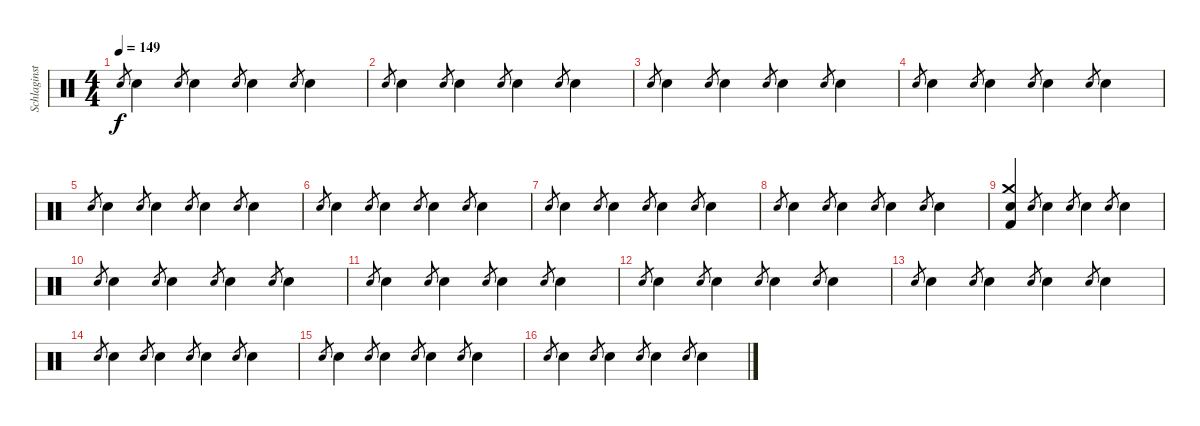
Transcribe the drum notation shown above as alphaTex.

\track ("Schlaginstrumente - Auswahl" "Schlaginst") {instrument percussion}
\staff {score}
\articulation defaults
\ts (4 4)
\tempo 149
\clef neutral
\ks c "Electric Snare (hit)".8{gr dy f} "Electric Snare (hit)".4 "Electric Snare (hit)".8{gr} "Electric Snare (hit)".4 "Electric Snare (hit)".8{gr} "Electric Snare (hit)".4 "Electric Snare (hit)".8{gr} "Electric Snare (hit)".4
|
"Electric Snare (hit)".8{gr} "Electric Snare (hit)".4 "Electric Snare (hit)".8{gr} "Electric Snare (hit)".4 "Electric Snare (hit)".8{gr} "Electric Snare (hit)".4 "Electric Snare (hit)".8{gr} "Electric Snare (hit)".4 |
"Electric Snare (hit)".8{gr} "Electric Snare (hit)".4 "Electric Snare (hit)".8{gr} "Electric Snare (hit)".4 "Electric Snare (hit)".8{gr} "Electric Snare (hit)".4 "Electric Snare (hit)".8{gr} "Electric Snare (hit)".4 |
"Electric Snare (hit)".8{gr} "Electric Snare (hit)".4 "Electric Snare (hit)".8{gr} "Electric Snare (hit)".4 "Electric Snare (hit)".8{gr} "Electric Snare (hit)".4 "Electric Snare (hit)".8{gr} "Electric Snare (hit)".4 |
"Electric Snare (hit)".8{gr} "Electric Snare (hit)".4 "Electric Snare (hit)".8{gr} "Electric Snare (hit)".4 "Electric Snare (hit)".8{gr} "Electric Snare (hit)".4 "Electric Snare (hit)".8{gr} "Electric Snare (hit)".4 |
"Electric Snare (hit)".8{gr} "Electric Snare (hit)".4 "Electric Snare (hit)".8{gr} "Electric Snare (hit)".4 "Electric Snare (hit)".8{gr} "Electric Snare (hit)".4 "Electric Snare (hit)".8{gr} "Electric Snare (hit)".4 |
"Electric Snare (hit)".8{gr} "Electric Snare (hit)".4 "Electric Snare (hit)".8{gr} "Electric Snare (hit)".4 "Electric Snare (hit)".8{gr} "Electric Snare (hit)".4 "Electric Snare (hit)".8{gr} "Electric Snare (hit)".4 |
"Electric Snare (hit)".8{gr} "Electric Snare (hit)".4 "Electric Snare (hit)".8{gr} "Electric Snare (hit)".4 "Electric Snare (hit)".8{gr} "Electric Snare (hit)".4 "Electric Snare (hit)".8{gr} "Electric Snare (hit)".4 |
("Crash medium (hit)" "Electric Snare (hit)" "Kick (hit) 2").4 "Electric Snare (hit)".8{gr} "Electric Snare (hit)".4 "Electric Snare (hit)".8{gr} "Electric Snare (hit)".4 "Electric Snare (hit)".8{gr} "Electric Snare (hit)".4 |
"Electric Snare (hit)".8{gr} "Electric Snare (hit)".4 "Electric Snare (hit)".8{gr} "Electric Snare (hit)".4 "Electric Snare (hit)".8{gr} "Electric Snare (hit)".4 "Electric Snare (hit)".8{gr} "Electric Snare (hit)".4 |
"Electric Snare (hit)".8{gr} "Electric Snare (hit)".4 "Electric Snare (hit)".8{gr} "Electric Snare (hit)".4 "Electric Snare (hit)".8{gr} "Electric Snare (hit)".4 "Electric Snare (hit)".8{gr} "Electric Snare (hit)".4 |
"Electric Snare (hit)".8{gr} "Electric Snare (hit)".4 "Electric Snare (hit)".8{gr} "Electric Snare (hit)".4 "Electric Snare (hit)".8{gr} "Electric Snare (hit)".4 "Electric Snare (hit)".8{gr} "Electric Snare (hit)".4 |
"Electric Snare (hit)".8{gr} "Electric Snare (hit)".4 "Electric Snare (hit)".8{gr} "Electric Snare (hit)".4 "Electric Snare (hit)".8{gr} "Electric Snare (hit)".4 "Electric Snare (hit)".8{gr} "Electric Snare (hit)".4 |
"Electric Snare (hit)".8{gr} "Electric Snare (hit)".4 "Electric Snare (hit)".8{gr} "Electric Snare (hit)".4 "Electric Snare (hit)".8{gr} "Electric Snare (hit)".4 "Electric Snare (hit)".8{gr} "Electric Snare (hit)".4 |
"Electric Snare (hit)".8{gr} "Electric Snare (hit)".4 "Electric Snare (hit)".8{gr} "Electric Snare (hit)".4 "Electric Snare (hit)".8{gr} "Electric Snare (hit)".4 "Electric Snare (hit)".8{gr} "Electric Snare (hit)".4 |
"Electric Snare (hit)".8{gr} "Electric Snare (hit)".4 "Electric Snare (hit)".8{gr} "Electric Snare (hit)".4 "Electric Snare (hit)".8{gr} "Electric Snare (hit)".4 "Electric Snare (hit)".8{gr} "Electric Snare (hit)".4
